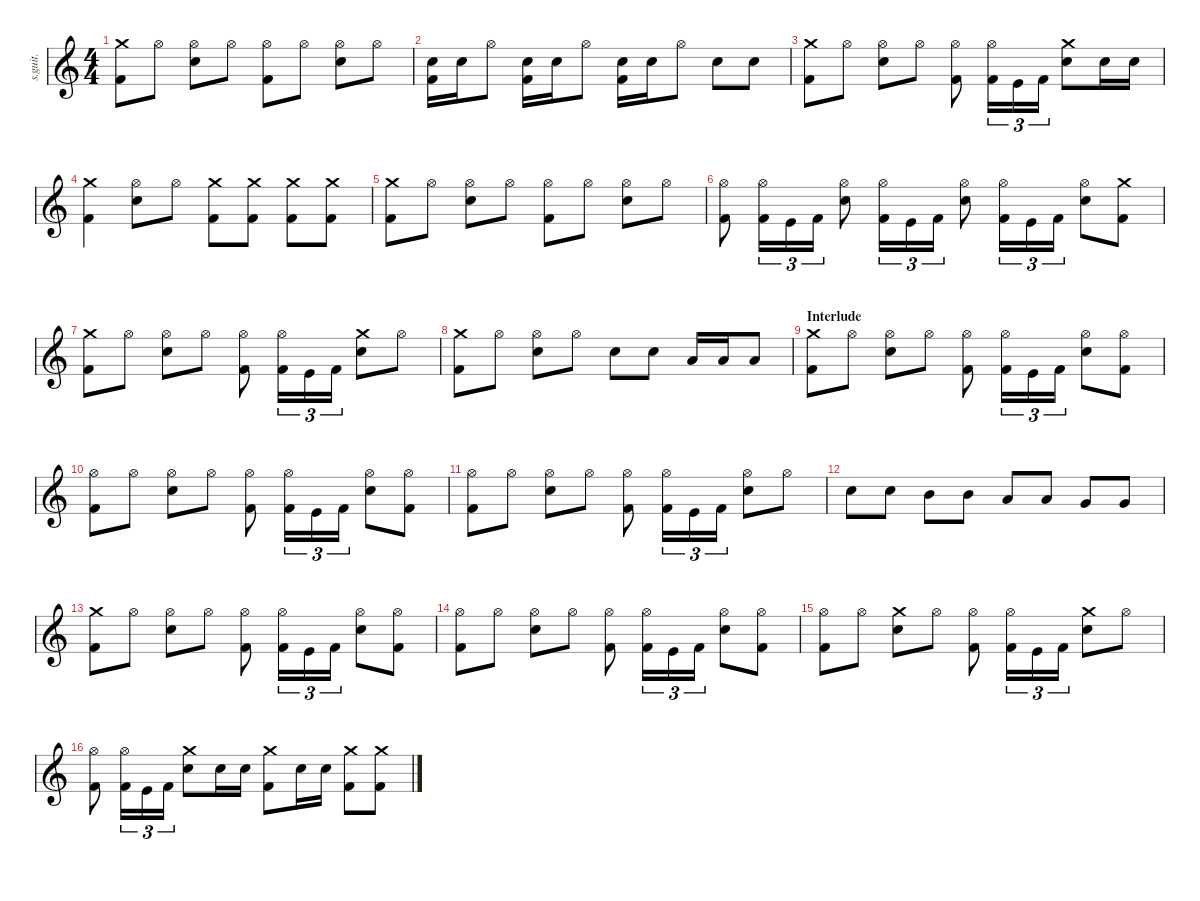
\defaultSystemsLayout 4
\hideDynamics
\bracketExtendMode nobrackets
\track ("Lars Ulrich - Drums" "s.guit.") {instrument percussion}
\staff {score}
\articulation defaults
\ts (4 4)
\tempo (140 hide)
\clef g2
\ks c
("Crash medium (hit)" "Kick (hit) 2").8{lyrics (0 "") lyrics (1 "") lyrics (2 "") lyrics (3 "") lyrics (4 "") dy f} "Hi-Hat (open)".8{lyrics (0 "") lyrics (1 "") lyrics (2 "") lyrics (3 "") lyrics (4 "")} ("Hi-Hat (open)" "Snare (hit) 2").8{lyrics (0 "") lyrics (1 "") lyrics (2 "") lyrics (3 "") lyrics (4 "")} "Hi-Hat (open)".8{lyrics (0 "") lyrics (1 "") lyrics (2 "") lyrics (3 "") lyrics (4 "")} ("Hi-Hat (open)" "Kick (hit) 2").8{lyrics (0 "") lyrics (1 "") lyrics (2 "") lyrics (3 "") lyrics (4 "")} "Hi-Hat (open)".8{lyrics (0 "") lyrics (1 "") lyrics (2 "") lyrics (3 "") lyrics (4 "")} ("Hi-Hat (open)" "Snare (hit) 2").8{lyrics (0 "") lyrics (1 "") lyrics (2 "") lyrics (3 "") lyrics (4 "")} "Hi-Hat (open)".8{lyrics (0 "") lyrics (1 "") lyrics (2 "") lyrics (3 "") lyrics (4 "")} |
("Snare (hit) 2" "Kick (hit) 2").16{lyrics (0 "") lyrics (1 "") lyrics (2 "") lyrics (3 "") lyrics (4 "")} "Snare (hit) 2".16{lyrics (0 "") lyrics (1 "") lyrics (2 "") lyrics (3 "") lyrics (4 "")} "Hi-Hat (open)".8{lyrics (0 "") lyrics (1 "") lyrics (2 "") lyrics (3 "") lyrics (4 "")} ("Snare (hit) 2" "Kick (hit) 2").16{lyrics (0 "") lyrics (1 "") lyrics (2 "") lyrics (3 "") lyrics (4 "")} "Snare (hit) 2".16{lyrics (0 "") lyrics (1 "") lyrics (2 "") lyrics (3 "") lyrics (4 "")} "Hi-Hat (open)".8{lyrics (0 "") lyrics (1 "") lyrics (2 "") lyrics (3 "") lyrics (4 "")} ("Snare (hit) 2" "Kick (hit) 2").16{lyrics (0 "") lyrics (1 "") lyrics (2 "") lyrics (3 "") lyrics (4 "")} "Snare (hit) 2".16{lyrics (0 "") lyrics (1 "") lyrics (2 "") lyrics (3 "") lyrics (4 "")} "Hi-Hat (open)".8{lyrics (0 "") lyrics (1 "") lyrics (2 "") lyrics (3 "") lyrics (4 "")} "Snare (hit) 2".8{lyrics (0 "") lyrics (1 "") lyrics (2 "") lyrics (3 "") lyrics (4 "") dy fff} "Snare (hit) 2".8{lyrics (0 "") lyrics (1 "") lyrics (2 "") lyrics (3 "") lyrics (4 "")} |
("Crash medium (hit)" "Kick (hit) 2").8{lyrics (0 "") lyrics (1 "") lyrics (2 "") lyrics (3 "") lyrics (4 "") dy f} "Hi-Hat (open)".8{lyrics (0 "") lyrics (1 "") lyrics (2 "") lyrics (3 "") lyrics (4 "")} ("Hi-Hat (open)" "Snare (hit) 2").8{lyrics (0 "") lyrics (1 "") lyrics (2 "") lyrics (3 "") lyrics (4 "")} "Hi-Hat (open)".8{lyrics (0 "") lyrics (1 "") lyrics (2 "") lyrics (3 "") lyrics (4 "")} ("Hi-Hat (open)" "Kick (hit) 2").8{lyrics (0 "") lyrics (1 "") lyrics (2 "") lyrics (3 "") lyrics (4 "")} ("Hi-Hat (open)" "Kick (hit) 2").16{tu (3 2) lyrics (0 "") lyrics (1 "") lyrics (2 "") lyrics (3 "") lyrics (4 "")} "Kick (hit)".16{tu (3 2) lyrics (0 "") lyrics (1 "") lyrics (2 "") lyrics (3 "") lyrics (4 "") dy fff} "Kick (hit) 2".16{tu (3 2) lyrics (0 "") lyrics (1 "") lyrics (2 "") lyrics (3 "") lyrics (4 "") dy f} ("Crash medium (hit)" "Snare (hit) 2").8{lyrics (0 "") lyrics (1 "") lyrics (2 "") lyrics (3 "") lyrics (4 "")} "Snare (hit) 2".16{lyrics (0 "") lyrics (1 "") lyrics (2 "") lyrics (3 "") lyrics (4 "") dy mp} "Snare (hit) 2".16{lyrics (0 "") lyrics (1 "") lyrics (2 "") lyrics (3 "") lyrics (4 "")} |
("Crash medium (hit)" "Kick (hit) 2").4{lyrics (0 "") lyrics (1 "") lyrics (2 "") lyrics (3 "") lyrics (4 "") dy f} ("Hi-Hat (open)" "Snare (hit) 2").8{lyrics (0 "") lyrics (1 "") lyrics (2 "") lyrics (3 "") lyrics (4 "")} "Hi-Hat (open)".8{lyrics (0 "") lyrics (1 "") lyrics (2 "") lyrics (3 "") lyrics (4 "")} ("Crash medium (hit)" "Kick (hit) 2").8{lyrics (0 "") lyrics (1 "") lyrics (2 "") lyrics (3 "") lyrics (4 "")} ("Crash medium (hit)" "Kick (hit) 2").8{lyrics (0 "") lyrics (1 "") lyrics (2 "") lyrics (3 "") lyrics (4 "")} ("Crash medium (hit)" "Kick (hit) 2").8{lyrics (0 "") lyrics (1 "") lyrics (2 "") lyrics (3 "") lyrics (4 "")} ("Crash medium (hit)" "Kick (hit) 2").8{lyrics (0 "") lyrics (1 "") lyrics (2 "") lyrics (3 "") lyrics (4 "")} |
("Crash medium (hit)" "Kick (hit) 2").8{lyrics (0 "") lyrics (1 "") lyrics (2 "") lyrics (3 "") lyrics (4 "")} "Hi-Hat (open)".8{lyrics (0 "") lyrics (1 "") lyrics (2 "") lyrics (3 "") lyrics (4 "")} ("Hi-Hat (open)" "Snare (hit) 2").8{lyrics (0 "") lyrics (1 "") lyrics (2 "") lyrics (3 "") lyrics (4 "")} "Hi-Hat (open)".8{lyrics (0 "") lyrics (1 "") lyrics (2 "") lyrics (3 "") lyrics (4 "")} ("Hi-Hat (open)" "Kick (hit) 2").8{lyrics (0 "") lyrics (1 "") lyrics (2 "") lyrics (3 "") lyrics (4 "")} "Hi-Hat (open)".8{lyrics (0 "") lyrics (1 "") lyrics (2 "") lyrics (3 "") lyrics (4 "")} ("Hi-Hat (open)" "Snare (hit) 2").8{lyrics (0 "") lyrics (1 "") lyrics (2 "") lyrics (3 "") lyrics (4 "")} "Hi-Hat (open)".8{lyrics (0 "") lyrics (1 "") lyrics (2 "") lyrics (3 "") lyrics (4 "")} |
("Hi-Hat (open)" "Kick (hit) 2").8{lyrics (0 "") lyrics (1 "") lyrics (2 "") lyrics (3 "") lyrics (4 "")} ("Hi-Hat (open)" "Kick (hit) 2").16{tu (3 2) lyrics (0 "") lyrics (1 "") lyrics (2 "") lyrics (3 "") lyrics (4 "")} "Kick (hit)".16{tu (3 2) lyrics (0 "") lyrics (1 "") lyrics (2 "") lyrics (3 "") lyrics (4 "")} "Kick (hit) 2".16{tu (3 2) lyrics (0 "") lyrics (1 "") lyrics (2 "") lyrics (3 "") lyrics (4 "")} ("Hi-Hat (open)" "Snare (hit) 2").8{lyrics (0 "") lyrics (1 "") lyrics (2 "") lyrics (3 "") lyrics (4 "")} ("Hi-Hat (open)" "Kick (hit) 2").16{tu (3 2) lyrics (0 "") lyrics (1 "") lyrics (2 "") lyrics (3 "") lyrics (4 "")} "Kick (hit)".16{tu (3 2) lyrics (0 "") lyrics (1 "") lyrics (2 "") lyrics (3 "") lyrics (4 "")} "Kick (hit) 2".16{tu (3 2) lyrics (0 "") lyrics (1 "") lyrics (2 "") lyrics (3 "") lyrics (4 "")} ("Hi-Hat (open)" "Snare (hit) 2").8{lyrics (0 "") lyrics (1 "") lyrics (2 "") lyrics (3 "") lyrics (4 "")} ("Hi-Hat (open)" "Kick (hit) 2").16{tu (3 2) lyrics (0 "") lyrics (1 "") lyrics (2 "") lyrics (3 "") lyrics (4 "")} "Kick (hit)".16{tu (3 2) lyrics (0 "") lyrics (1 "") lyrics (2 "") lyrics (3 "") lyrics (4 "")} "Kick (hit) 2".16{tu (3 2) lyrics (0 "") lyrics (1 "") lyrics (2 "") lyrics (3 "") lyrics (4 "")} ("Hi-Hat (open)" "Snare (hit) 2").8{lyrics (0 "") lyrics (1 "") lyrics (2 "") lyrics (3 "") lyrics (4 "")} ("Crash medium (hit)" "Kick (hit) 2").8{lyrics (0 "") lyrics (1 "") lyrics (2 "") lyrics (3 "") lyrics (4 "")} |
("Crash medium (hit)" "Kick (hit) 2").8{lyrics (0 "") lyrics (1 "") lyrics (2 "") lyrics (3 "") lyrics (4 "")} "Hi-Hat (open)".8{lyrics (0 "") lyrics (1 "") lyrics (2 "") lyrics (3 "") lyrics (4 "")} ("Hi-Hat (open)" "Snare (hit) 2").8{lyrics (0 "") lyrics (1 "") lyrics (2 "") lyrics (3 "") lyrics (4 "")} "Hi-Hat (open)".8{lyrics (0 "") lyrics (1 "") lyrics (2 "") lyrics (3 "") lyrics (4 "")} ("Hi-Hat (open)" "Kick (hit) 2").8{lyrics (0 "") lyrics (1 "") lyrics (2 "") lyrics (3 "") lyrics (4 "")} ("Hi-Hat (open)" "Kick (hit) 2").16{tu (3 2) lyrics (0 "") lyrics (1 "") lyrics (2 "") lyrics (3 "") lyrics (4 "")} "Kick (hit)".16{tu (3 2) lyrics (0 "") lyrics (1 "") lyrics (2 "") lyrics (3 "") lyrics (4 "")} "Kick (hit) 2".16{tu (3 2) lyrics (0 "") lyrics (1 "") lyrics (2 "") lyrics (3 "") lyrics (4 "")} ("Crash medium (hit)" "Snare (hit) 2").8{lyrics (0 "") lyrics (1 "") lyrics (2 "") lyrics (3 "") lyrics (4 "")} "Hi-Hat (open)".8{lyrics (0 "") lyrics (1 "") lyrics (2 "") lyrics (3 "") lyrics (4 "")} |
("Crash medium (hit)" "Kick (hit) 2").8{lyrics (0 "") lyrics (1 "") lyrics (2 "") lyrics (3 "") lyrics (4 "")} "Hi-Hat (open)".8{lyrics (0 "") lyrics (1 "") lyrics (2 "") lyrics (3 "") lyrics (4 "")} ("Hi-Hat (open)" "Snare (hit) 2").8{lyrics (0 "") lyrics (1 "") lyrics (2 "") lyrics (3 "") lyrics (4 "")} "Hi-Hat (open)".8{lyrics (0 "") lyrics (1 "") lyrics (2 "") lyrics (3 "") lyrics (4 "")} "Snare (hit) 2".8{lyrics (0 "") lyrics (1 "") lyrics (2 "") lyrics (3 "") lyrics (4 "") dy ff} "Snare (hit) 2".8{lyrics (0 "") lyrics (1 "") lyrics (2 "") lyrics (3 "") lyrics (4 "")} "Low Tom (hit)".16{lyrics (0 "") lyrics (1 "") lyrics (2 "") lyrics (3 "") lyrics (4 "") dy fff} "Low Tom (hit)".16{lyrics (0 "") lyrics (1 "") lyrics (2 "") lyrics (3 "") lyrics (4 "")} "Low Tom (hit)".8{lyrics (0 "") lyrics (1 "") lyrics (2 "") lyrics (3 "") lyrics (4 "")} |
\section ("" "Interlude")
("Crash medium (hit)" "Kick (hit) 2").8{lyrics (0 "") lyrics (1 "") lyrics (2 "") lyrics (3 "") lyrics (4 "") dy f} "Hi-Hat (open)".8{lyrics (0 "") lyrics (1 "") lyrics (2 "") lyrics (3 "") lyrics (4 "")} ("Hi-Hat (open)" "Snare (hit) 2").8{lyrics (0 "") lyrics (1 "") lyrics (2 "") lyrics (3 "") lyrics (4 "")} "Hi-Hat (open)".8{lyrics (0 "") lyrics (1 "") lyrics (2 "") lyrics (3 "") lyrics (4 "")} ("Hi-Hat (open)" "Kick (hit) 2").8{lyrics (0 "") lyrics (1 "") lyrics (2 "") lyrics (3 "") lyrics (4 "")} ("Hi-Hat (open)" "Kick (hit) 2").16{tu (3 2) lyrics (0 "") lyrics (1 "") lyrics (2 "") lyrics (3 "") lyrics (4 "")} "Kick (hit)".16{tu (3 2) lyrics (0 "") lyrics (1 "") lyrics (2 "") lyrics (3 "") lyrics (4 "")} "Kick (hit) 2".16{tu (3 2) lyrics (0 "") lyrics (1 "") lyrics (2 "") lyrics (3 "") lyrics (4 "")} ("Hi-Hat (open)" "Snare (hit) 2").8{lyrics (0 "") lyrics (1 "") lyrics (2 "") lyrics (3 "") lyrics (4 "")} ("Hi-Hat (open)" "Kick (hit) 2").8{lyrics (0 "") lyrics (1 "") lyrics (2 "") lyrics (3 "") lyrics (4 "")} |
("Hi-Hat (open)" "Kick (hit) 2").8{lyrics (0 "") lyrics (1 "") lyrics (2 "") lyrics (3 "") lyrics (4 "")} "Hi-Hat (open)".8{lyrics (0 "") lyrics (1 "") lyrics (2 "") lyrics (3 "") lyrics (4 "")} ("Hi-Hat (open)" "Snare (hit) 2").8{lyrics (0 "") lyrics (1 "") lyrics (2 "") lyrics (3 "") lyrics (4 "")} "Hi-Hat (open)".8{lyrics (0 "") lyrics (1 "") lyrics (2 "") lyrics (3 "") lyrics (4 "")} ("Hi-Hat (open)" "Kick (hit) 2").8{lyrics (0 "") lyrics (1 "") lyrics (2 "") lyrics (3 "") lyrics (4 "")} ("Hi-Hat (open)" "Kick (hit) 2").16{tu (3 2) lyrics (0 "") lyrics (1 "") lyrics (2 "") lyrics (3 "") lyrics (4 "")} "Kick (hit)".16{tu (3 2) lyrics (0 "") lyrics (1 "") lyrics (2 "") lyrics (3 "") lyrics (4 "")} "Kick (hit) 2".16{tu (3 2) lyrics (0 "") lyrics (1 "") lyrics (2 "") lyrics (3 "") lyrics (4 "")} ("Hi-Hat (open)" "Snare (hit) 2").8{lyrics (0 "") lyrics (1 "") lyrics (2 "") lyrics (3 "") lyrics (4 "")} ("Hi-Hat (open)" "Kick (hit) 2").8{lyrics (0 "") lyrics (1 "") lyrics (2 "") lyrics (3 "") lyrics (4 "")} |
("Hi-Hat (open)" "Kick (hit) 2").8{lyrics (0 "") lyrics (1 "") lyrics (2 "") lyrics (3 "") lyrics (4 "")} "Hi-Hat (open)".8{lyrics (0 "") lyrics (1 "") lyrics (2 "") lyrics (3 "") lyrics (4 "")} ("Hi-Hat (open)" "Snare (hit) 2").8{lyrics (0 "") lyrics (1 "") lyrics (2 "") lyrics (3 "") lyrics (4 "")} "Hi-Hat (open)".8{lyrics (0 "") lyrics (1 "") lyrics (2 "") lyrics (3 "") lyrics (4 "")} ("Hi-Hat (open)" "Kick (hit) 2").8{lyrics (0 "") lyrics (1 "") lyrics (2 "") lyrics (3 "") lyrics (4 "")} ("Hi-Hat (open)" "Kick (hit) 2").16{tu (3 2) lyrics (0 "") lyrics (1 "") lyrics (2 "") lyrics (3 "") lyrics (4 "")} "Kick (hit)".16{tu (3 2) lyrics (0 "") lyrics (1 "") lyrics (2 "") lyrics (3 "") lyrics (4 "")} "Kick (hit) 2".16{tu (3 2) lyrics (0 "") lyrics (1 "") lyrics (2 "") lyrics (3 "") lyrics (4 "")} ("Hi-Hat (open)" "Snare (hit) 2").8{lyrics (0 "") lyrics (1 "") lyrics (2 "") lyrics (3 "") lyrics (4 "")} "Hi-Hat (open)".8{lyrics (0 "") lyrics (1 "") lyrics (2 "") lyrics (3 "") lyrics (4 "")} |
"Snare (hit) 2".8{lyrics (0 "") lyrics (1 "") lyrics (2 "") lyrics (3 "") lyrics (4 "") dy ff} "Snare (hit) 2".8{lyrics (0 "") lyrics (1 "") lyrics (2 "") lyrics (3 "") lyrics (4 "")} "Mid Tom (hit)".8{lyrics (0 "") lyrics (1 "") lyrics (2 "") lyrics (3 "") lyrics (4 "") dy fff} "Mid Tom (hit)".8{lyrics (0 "") lyrics (1 "") lyrics (2 "") lyrics (3 "") lyrics (4 "")} "Low Tom (hit)".8{lyrics (0 "") lyrics (1 "") lyrics (2 "") lyrics (3 "") lyrics (4 "")} "Low Tom (hit)".8{lyrics (0 "") lyrics (1 "") lyrics (2 "") lyrics (3 "") lyrics (4 "")} "Very Low Tom (hit)".8{lyrics (0 "") lyrics (1 "") lyrics (2 "") lyrics (3 "") lyrics (4 "") dy ff} "Very Low Tom (hit)".8{lyrics (0 "") lyrics (1 "") lyrics (2 "") lyrics (3 "") lyrics (4 "")} |
("Crash medium (hit)" "Kick (hit) 2").8{lyrics (0 "") lyrics (1 "") lyrics (2 "") lyrics (3 "") lyrics (4 "") dy f} "Hi-Hat (open)".8{lyrics (0 "") lyrics (1 "") lyrics (2 "") lyrics (3 "") lyrics (4 "")} ("Hi-Hat (open)" "Snare (hit) 2").8{lyrics (0 "") lyrics (1 "") lyrics (2 "") lyrics (3 "") lyrics (4 "")} "Hi-Hat (open)".8{lyrics (0 "") lyrics (1 "") lyrics (2 "") lyrics (3 "") lyrics (4 "")} ("Hi-Hat (open)" "Kick (hit) 2").8{lyrics (0 "") lyrics (1 "") lyrics (2 "") lyrics (3 "") lyrics (4 "")} ("Hi-Hat (open)" "Kick (hit) 2").16{tu (3 2) lyrics (0 "") lyrics (1 "") lyrics (2 "") lyrics (3 "") lyrics (4 "")} "Kick (hit)".16{tu (3 2) lyrics (0 "") lyrics (1 "") lyrics (2 "") lyrics (3 "") lyrics (4 "")} "Kick (hit) 2".16{tu (3 2) lyrics (0 "") lyrics (1 "") lyrics (2 "") lyrics (3 "") lyrics (4 "")} ("Hi-Hat (open)" "Snare (hit) 2").8{lyrics (0 "") lyrics (1 "") lyrics (2 "") lyrics (3 "") lyrics (4 "")} ("Hi-Hat (open)" "Kick (hit) 2").8{lyrics (0 "") lyrics (1 "") lyrics (2 "") lyrics (3 "") lyrics (4 "")} |
("Hi-Hat (open)" "Kick (hit) 2").8{lyrics (0 "") lyrics (1 "") lyrics (2 "") lyrics (3 "") lyrics (4 "")} "Hi-Hat (open)".8{lyrics (0 "") lyrics (1 "") lyrics (2 "") lyrics (3 "") lyrics (4 "")} ("Hi-Hat (open)" "Snare (hit) 2").8{lyrics (0 "") lyrics (1 "") lyrics (2 "") lyrics (3 "") lyrics (4 "")} "Hi-Hat (open)".8{lyrics (0 "") lyrics (1 "") lyrics (2 "") lyrics (3 "") lyrics (4 "")} ("Hi-Hat (open)" "Kick (hit) 2").8{lyrics (0 "") lyrics (1 "") lyrics (2 "") lyrics (3 "") lyrics (4 "")} ("Hi-Hat (open)" "Kick (hit) 2").16{tu (3 2) lyrics (0 "") lyrics (1 "") lyrics (2 "") lyrics (3 "") lyrics (4 "")} "Kick (hit)".16{tu (3 2) lyrics (0 "") lyrics (1 "") lyrics (2 "") lyrics (3 "") lyrics (4 "")} "Kick (hit) 2".16{tu (3 2) lyrics (0 "") lyrics (1 "") lyrics (2 "") lyrics (3 "") lyrics (4 "")} ("Hi-Hat (open)" "Snare (hit) 2").8{lyrics (0 "") lyrics (1 "") lyrics (2 "") lyrics (3 "") lyrics (4 "")} ("Hi-Hat (open)" "Kick (hit) 2").8{lyrics (0 "") lyrics (1 "") lyrics (2 "") lyrics (3 "") lyrics (4 "")} |
("Hi-Hat (open)" "Kick (hit) 2").8{lyrics (0 "") lyrics (1 "") lyrics (2 "") lyrics (3 "") lyrics (4 "")} "Hi-Hat (open)".8{lyrics (0 "") lyrics (1 "") lyrics (2 "") lyrics (3 "") lyrics (4 "")} ("Crash medium (hit)" "Snare (hit) 2").8{lyrics (0 "") lyrics (1 "") lyrics (2 "") lyrics (3 "") lyrics (4 "")} "Hi-Hat (open)".8{lyrics (0 "") lyrics (1 "") lyrics (2 "") lyrics (3 "") lyrics (4 "")} ("Hi-Hat (open)" "Kick (hit) 2").8{lyrics (0 "") lyrics (1 "") lyrics (2 "") lyrics (3 "") lyrics (4 "")} ("Hi-Hat (open)" "Kick (hit) 2").16{tu (3 2) lyrics (0 "") lyrics (1 "") lyrics (2 "") lyrics (3 "") lyrics (4 "")} "Kick (hit)".16{tu (3 2) lyrics (0 "") lyrics (1 "") lyrics (2 "") lyrics (3 "") lyrics (4 "")} "Kick (hit) 2".16{tu (3 2) lyrics (0 "") lyrics (1 "") lyrics (2 "") lyrics (3 "") lyrics (4 "")} ("Crash medium (hit)" "Snare (hit) 2").8{lyrics (0 "") lyrics (1 "") lyrics (2 "") lyrics (3 "") lyrics (4 "")} "Hi-Hat (open)".8{lyrics (0 "") lyrics (1 "") lyrics (2 "") lyrics (3 "") lyrics (4 "")} |
("Hi-Hat (open)" "Kick (hit) 2").8{lyrics (0 "") lyrics (1 "") lyrics (2 "") lyrics (3 "") lyrics (4 "")} ("Hi-Hat (open)" "Kick (hit) 2").16{tu (3 2) lyrics (0 "") lyrics (1 "") lyrics (2 "") lyrics (3 "") lyrics (4 "")} "Kick (hit)".16{tu (3 2) lyrics (0 "") lyrics (1 "") lyrics (2 "") lyrics (3 "") lyrics (4 "")} "Kick (hit) 2".16{tu (3 2) lyrics (0 "") lyrics (1 "") lyrics (2 "") lyrics (3 "") lyrics (4 "")} ("Crash medium (hit)" "Snare (hit) 2").8{lyrics (0 "") lyrics (1 "") lyrics (2 "") lyrics (3 "") lyrics (4 "")} "Snare (hit) 2".16{lyrics (0 "") lyrics (1 "") lyrics (2 "") lyrics (3 "") lyrics (4 "")} "Snare (hit) 2".16{lyrics (0 "") lyrics (1 "") lyrics (2 "") lyrics (3 "") lyrics (4 "")} ("Crash medium (hit)" "Kick (hit) 2").8{lyrics (0 "") lyrics (1 "") lyrics (2 "") lyrics (3 "") lyrics (4 "")} "Snare (hit) 2".16{lyrics (0 "") lyrics (1 "") lyrics (2 "") lyrics (3 "") lyrics (4 "")} "Snare (hit) 2".16{lyrics (0 "") lyrics (1 "") lyrics (2 "") lyrics (3 "") lyrics (4 "")} ("Crash medium (hit)" "Kick (hit) 2").8{lyrics (0 "") lyrics (1 "") lyrics (2 "") lyrics (3 "") lyrics (4 "")} ("Crash medium (hit)" "Kick (hit) 2").8{lyrics (0 "") lyrics (1 "") lyrics (2 "") lyrics (3 "") lyrics (4 "")}
